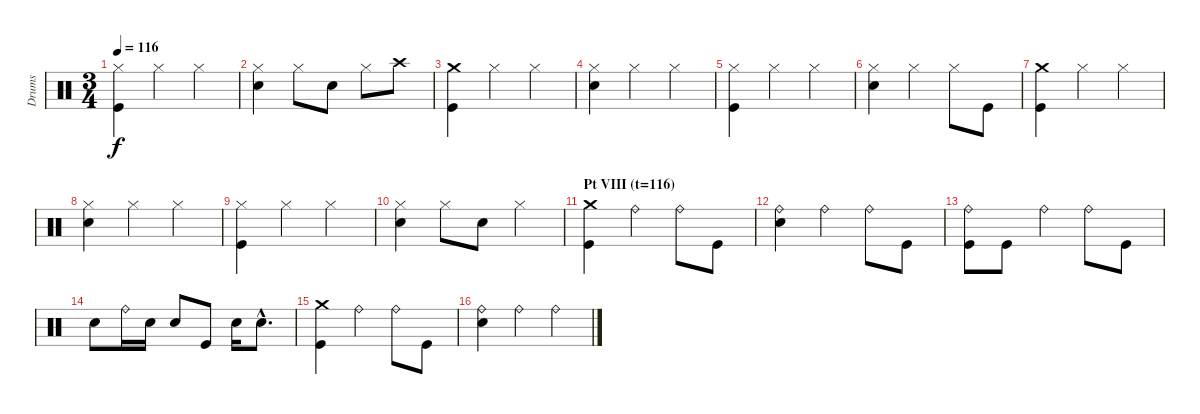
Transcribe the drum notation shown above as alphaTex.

\track ("Drums" "Drums") {instrument percussion}
\staff {score}
\articulation defaults
\ts (3 4)
\tempo 116
\clef neutral
\ks c
("Kick (hit)" "Hi-Hat (closed)").4{dy f} "Hi-Hat (closed)".4 "Hi-Hat (closed)".4 |
("Electric Snare (hit)" "Hi-Hat (closed)").4 "Hi-Hat (closed)".8 "Electric Snare (hit)".8 "Hi-Hat (closed)".8 "Crash high (hit)".8 |
("Kick (hit)" "Crash medium (hit)").4 "Hi-Hat (closed)".4 "Hi-Hat (closed)".4 |
("Electric Snare (hit)" "Hi-Hat (closed)").4 "Hi-Hat (closed)".4 "Hi-Hat (closed)".4 |
("Kick (hit)" "Hi-Hat (closed)").4 "Hi-Hat (closed)".4 "Hi-Hat (closed)".4 |
("Electric Snare (hit)" "Hi-Hat (closed)").4 "Hi-Hat (closed)".4 "Hi-Hat (closed)".8 "Kick (hit)".8 |
("Kick (hit)" "Crash medium (hit)").4 "Hi-Hat (closed)".4 "Hi-Hat (closed)".4 |
("Electric Snare (hit)" "Hi-Hat (closed)").4 "Hi-Hat (closed)".4 "Hi-Hat (closed)".4 |
("Kick (hit)" "Hi-Hat (closed)").4 "Hi-Hat (closed)".4 "Hi-Hat (closed)".4 |
("Electric Snare (hit)" "Hi-Hat (closed)").4 "Hi-Hat (closed)".8 "Electric Snare (hit)".8 "Hi-Hat (closed)".4 |
\section ("" "Pt VIII (t=116)")
("Kick (hit)" "Crash medium (hit)").4 "Ride (bell)".4 "Ride (bell)".8 "Kick (hit)".8 |
("Electric Snare (hit)" "Ride (bell)").4 "Ride (bell)".4 "Ride (bell)".8 "Kick (hit)".8 |
("Kick (hit)" "Ride (bell)").8 "Kick (hit)".8 "Ride (bell)".4 "Ride (bell)".8 "Kick (hit)".8 |
"Electric Snare (hit)".8 "Ride (bell)".16 "Electric Snare (hit)".16 "Electric Snare (hit)".8 "Kick (hit)".8 "Electric Snare (hit)".16 "Electric Snare (hit)"{hac}.8{d} |
("Kick (hit)" "Crash medium (hit)").4 "Ride (bell)".4 "Ride (bell)".8 "Kick (hit)".8 |
("Electric Snare (hit)" "Ride (bell)").4 "Ride (bell)".4 "Ride (bell)".4
